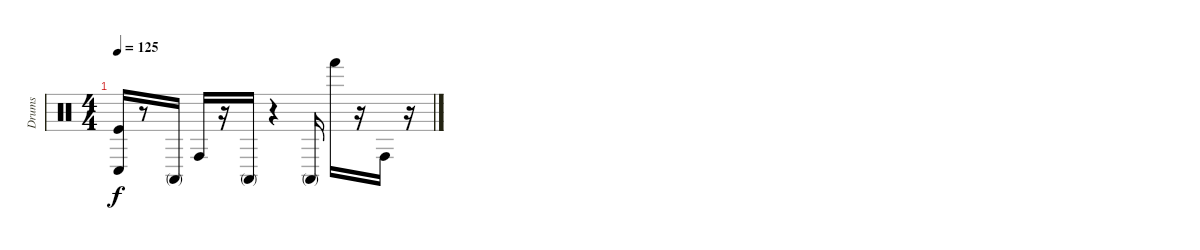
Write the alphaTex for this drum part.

\track ("Drums" "Drums") {instrument percussion}
\staff {score}
\articulation defaults
\ts (4 4)
\tempo 125
\clef neutral
\ks c
("Kick (hit)" "Conga low (hit)").16{dy f} r.8 "Conga high (mute)".16 "Conga high (hit)".16 r.16 "Conga high (mute)".16 r.4 "Conga high (mute)".16 "Hand (hit)".16 r.16 "Conga high (hit)".16 r.16
